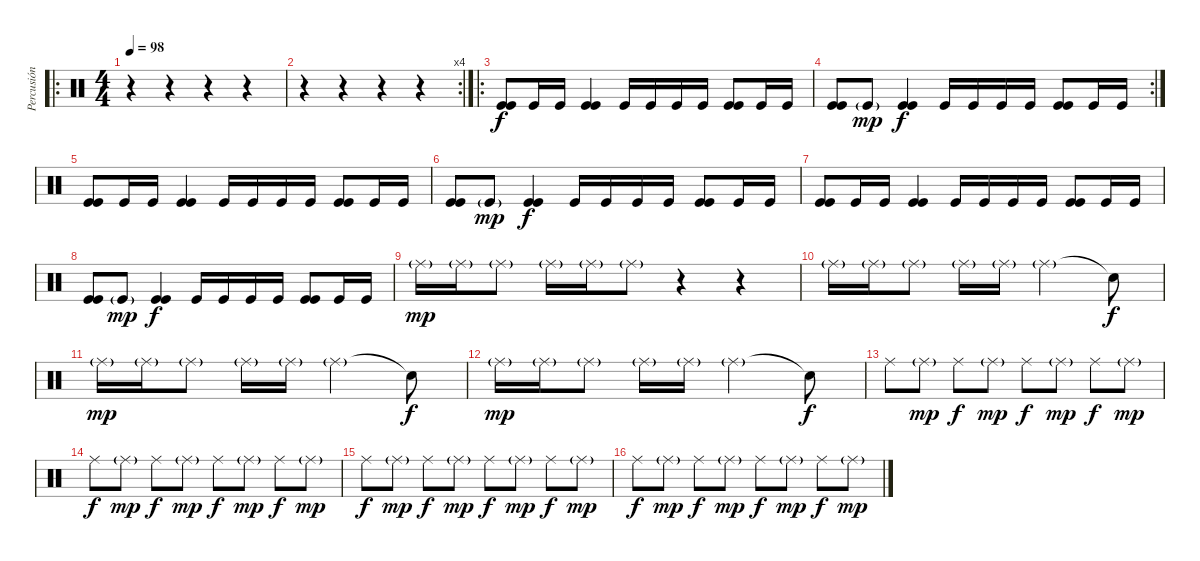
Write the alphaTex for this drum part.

\track ("Percusión" "Percusión") {instrument percussion}
\staff {score}
\articulation defaults
\ro
\ts (4 4)
\tempo 98
\clef neutral
\ks c
r.4{dy f} r.4 r.4 r.4 |
\rc 4
r.4 r.4 r.4 r.4 |
\ro
("Kick (hit)" "Kick (hit)").8 "Kick (hit)".16 "Kick (hit)".16 ("Kick (hit)" "Kick (hit)").4 "Kick (hit)".16 "Kick (hit)".16 "Kick (hit)".16 "Kick (hit)".16 ("Kick (hit)" "Kick (hit)").8 "Kick (hit)".16 "Kick (hit)".16 |
\rc 2
("Kick (hit)" "Kick (hit)").8 "Kick (hit)"{g}.8{dy mp} ("Kick (hit)" "Kick (hit)").4{dy f} "Kick (hit)".16 "Kick (hit)".16 "Kick (hit)".16 "Kick (hit)".16 ("Kick (hit)" "Kick (hit)").8 "Kick (hit)".16 "Kick (hit)".16 |
("Kick (hit)" "Kick (hit)").8 "Kick (hit)".16 "Kick (hit)".16 ("Kick (hit)" "Kick (hit)").4 "Kick (hit)".16 "Kick (hit)".16 "Kick (hit)".16 "Kick (hit)".16 ("Kick (hit)" "Kick (hit)").8 "Kick (hit)".16 "Kick (hit)".16 |
("Kick (hit)" "Kick (hit)").8 "Kick (hit)"{g}.8{dy mp} ("Kick (hit)" "Kick (hit)").4{dy f} "Kick (hit)".16 "Kick (hit)".16 "Kick (hit)".16 "Kick (hit)".16 ("Kick (hit)" "Kick (hit)").8 "Kick (hit)".16 "Kick (hit)".16 |
("Kick (hit)" "Kick (hit)").8 "Kick (hit)".16 "Kick (hit)".16 ("Kick (hit)" "Kick (hit)").4 "Kick (hit)".16 "Kick (hit)".16 "Kick (hit)".16 "Kick (hit)".16 ("Kick (hit)" "Kick (hit)").8 "Kick (hit)".16 "Kick (hit)".16 |
("Kick (hit)" "Kick (hit)").8 "Kick (hit)"{g}.8{dy mp} ("Kick (hit)" "Kick (hit)").4{dy f} "Kick (hit)".16 "Kick (hit)".16 "Kick (hit)".16 "Kick (hit)".16 ("Kick (hit)" "Kick (hit)").8 "Kick (hit)".16 "Kick (hit)".16 |
"Ride (middle)"{g}.16{dy mp} "Ride (middle)"{g}.16 "Ride (middle)"{g}.8 "Ride (middle)"{g}.16 "Ride (middle)"{g}.16 "Ride (middle)"{g}.8 r.4 r.4 |
"Ride (middle)"{g}.16 "Ride (middle)"{g}.16 "Ride (middle)"{g}.8 "Ride (middle)"{g}.16 "Ride (middle)"{g}.16 "Ride (middle)"{g}.2 "Snare (hit)"{t}.8{dy f} |
"Ride (middle)"{g}.16{dy mp} "Ride (middle)"{g}.16 "Ride (middle)"{g}.8 "Ride (middle)"{g}.16 "Ride (middle)"{g}.16 "Ride (middle)"{g}.2 "Snare (hit)"{t}.8{dy f} |
"Ride (middle)"{g}.16{dy mp} "Ride (middle)"{g}.16 "Ride (middle)"{g}.8 "Ride (middle)"{g}.16 "Ride (middle)"{g}.16 "Ride (middle)"{g}.2 "Snare (hit)"{t}.8{dy f} |
"Ride (middle)".8 "Ride (middle)"{g}.8{dy mp} "Ride (middle)".8{dy f} "Ride (middle)"{g}.8{dy mp} "Ride (middle)".8{dy f} "Ride (middle)"{g}.8{dy mp} "Ride (middle)".8{dy f} "Ride (middle)"{g}.8{dy mp} |
"Ride (middle)".8{dy f} "Ride (middle)"{g}.8{dy mp} "Ride (middle)".8{dy f} "Ride (middle)"{g}.8{dy mp} "Ride (middle)".8{dy f} "Ride (middle)"{g}.8{dy mp} "Ride (middle)".8{dy f} "Ride (middle)"{g}.8{dy mp} |
"Ride (middle)".8{dy f} "Ride (middle)"{g}.8{dy mp} "Ride (middle)".8{dy f} "Ride (middle)"{g}.8{dy mp} "Ride (middle)".8{dy f} "Ride (middle)"{g}.8{dy mp} "Ride (middle)".8{dy f} "Ride (middle)"{g}.8{dy mp} |
"Ride (middle)".8{dy f} "Ride (middle)"{g}.8{dy mp} "Ride (middle)".8{dy f} "Ride (middle)"{g}.8{dy mp} "Ride (middle)".8{dy f} "Ride (middle)"{g}.8{dy mp} "Ride (middle)".8{dy f} "Ride (middle)"{g}.8{dy mp}
